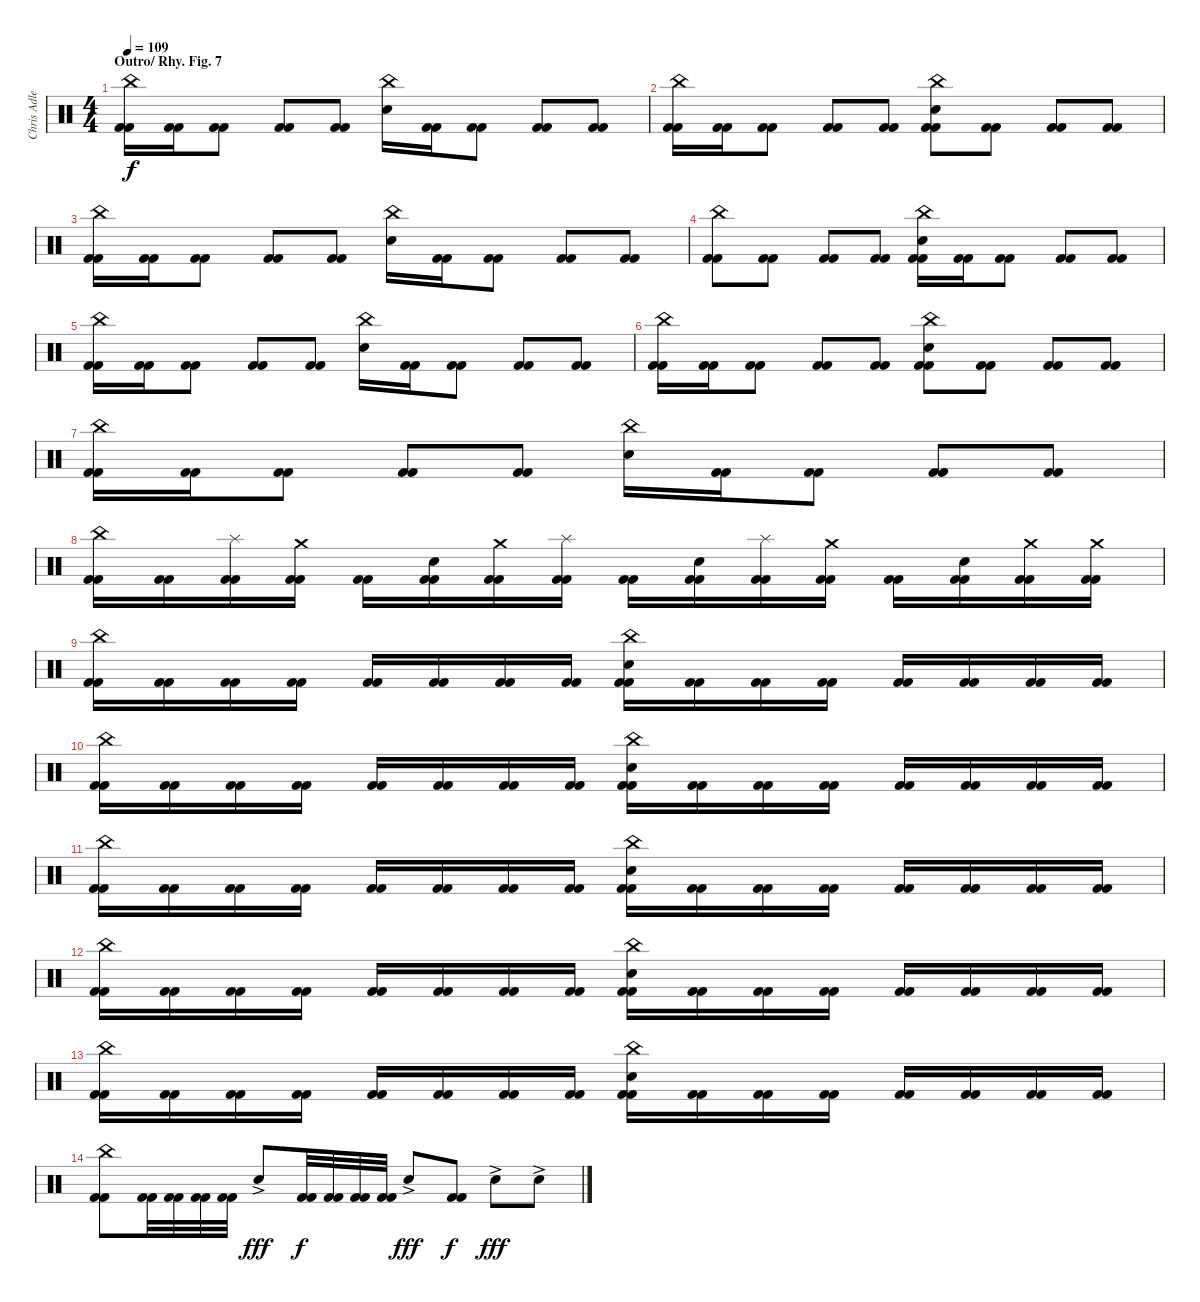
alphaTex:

\track ("Chris Adler" "Chris Adle") {instrument percussion}
\staff {score}
\articulation defaults
\ts (4 4)
\section ("" "Outro/ Rhy. Fig. 7")
\tempo 109
\clef neutral
\ks c
("China (hit)" "Kick (hit) 2" "Kick (hit) 2").16{dy f} ("Kick (hit) 2" "Kick (hit) 2").16 ("Kick (hit) 2" "Kick (hit) 2").8 ("Kick (hit) 2" "Kick (hit) 2").8 ("Kick (hit) 2" "Kick (hit) 2").8 ("China (hit)" "Electric Snare (hit)").16 ("Kick (hit) 2" "Kick (hit) 2").16 ("Kick (hit) 2" "Kick (hit) 2").8 ("Kick (hit) 2" "Kick (hit) 2").8 ("Kick (hit) 2" "Kick (hit) 2").8 |
("China (hit)" "Kick (hit) 2" "Kick (hit) 2").16 ("Kick (hit) 2" "Kick (hit) 2").16 ("Kick (hit) 2" "Kick (hit) 2").8 ("Kick (hit) 2" "Kick (hit) 2").8 ("Kick (hit) 2" "Kick (hit) 2").8 ("China (hit)" "Electric Snare (hit)" "Kick (hit) 2" "Kick (hit) 2").8 ("Kick (hit) 2" "Kick (hit) 2").8 ("Kick (hit) 2" "Kick (hit) 2").8 ("Kick (hit) 2" "Kick (hit) 2").8 |
("China (hit)" "Kick (hit) 2" "Kick (hit) 2").16 ("Kick (hit) 2" "Kick (hit) 2").16 ("Kick (hit) 2" "Kick (hit) 2").8 ("Kick (hit) 2" "Kick (hit) 2").8 ("Kick (hit) 2" "Kick (hit) 2").8 ("China (hit)" "Electric Snare (hit)").16 ("Kick (hit) 2" "Kick (hit) 2").16 ("Kick (hit) 2" "Kick (hit) 2").8 ("Kick (hit) 2" "Kick (hit) 2").8 ("Kick (hit) 2" "Kick (hit) 2").8 |
("China (hit)" "Kick (hit) 2" "Kick (hit) 2").8 ("Kick (hit) 2" "Kick (hit) 2").8 ("Kick (hit) 2" "Kick (hit) 2").8 ("Kick (hit) 2" "Kick (hit) 2").8 ("China (hit)" "Electric Snare (hit)" "Kick (hit) 2" "Kick (hit) 2").16 ("Kick (hit) 2" "Kick (hit) 2").16 ("Kick (hit) 2" "Kick (hit) 2").8 ("Kick (hit) 2" "Kick (hit) 2").8 ("Kick (hit) 2" "Kick (hit) 2").8 |
("China (hit)" "Kick (hit) 2" "Kick (hit) 2").16 ("Kick (hit) 2" "Kick (hit) 2").16 ("Kick (hit) 2" "Kick (hit) 2").8 ("Kick (hit) 2" "Kick (hit) 2").8 ("Kick (hit) 2" "Kick (hit) 2").8 ("China (hit)" "Electric Snare (hit)").16 ("Kick (hit) 2" "Kick (hit) 2").16 ("Kick (hit) 2" "Kick (hit) 2").8 ("Kick (hit) 2" "Kick (hit) 2").8 ("Kick (hit) 2" "Kick (hit) 2").8 |
("China (hit)" "Kick (hit) 2" "Kick (hit) 2").16 ("Kick (hit) 2" "Kick (hit) 2").16 ("Kick (hit) 2" "Kick (hit) 2").8 ("Kick (hit) 2" "Kick (hit) 2").8 ("Kick (hit) 2" "Kick (hit) 2").8 ("China (hit)" "Electric Snare (hit)" "Kick (hit) 2" "Kick (hit) 2").8 ("Kick (hit) 2" "Kick (hit) 2").8 ("Kick (hit) 2" "Kick (hit) 2").8 ("Kick (hit) 2" "Kick (hit) 2").8 |
("China (hit)" "Kick (hit) 2" "Kick (hit) 2").16 ("Kick (hit) 2" "Kick (hit) 2").16 ("Kick (hit) 2" "Kick (hit) 2").8 ("Kick (hit) 2" "Kick (hit) 2").8 ("Kick (hit) 2" "Kick (hit) 2").8 ("China (hit)" "Electric Snare (hit)").16 ("Kick (hit) 2" "Kick (hit) 2").16 ("Kick (hit) 2" "Kick (hit) 2").8 ("Kick (hit) 2" "Kick (hit) 2").8 ("Kick (hit) 2" "Kick (hit) 2").8 |
("China (hit)" "Kick (hit) 2" "Kick (hit) 2").16 ("Kick (hit) 2" "Kick (hit) 2").16 ("Splash (hit)" "Kick (hit) 2" "Kick (hit) 2").16 ("Crash medium (hit)" "Kick (hit) 2" "Kick (hit) 2").16 ("Kick (hit) 2" "Kick (hit) 2").16 ("Electric Snare (hit)" "Kick (hit) 2" "Kick (hit) 2").16 ("Crash medium (hit)" "Kick (hit) 2" "Kick (hit) 2").16 ("Splash (hit)" "Kick (hit) 2" "Kick (hit) 2").16 ("Kick (hit) 2" "Kick (hit) 2").16 ("Electric Snare (hit)" "Kick (hit) 2" "Kick (hit) 2").16 ("Splash (hit)" "Kick (hit) 2" "Kick (hit) 2").16 ("Crash medium (hit)" "Kick (hit) 2" "Kick (hit) 2").16 ("Kick (hit) 2" "Kick (hit) 2").16 ("Electric Snare (hit)" "Kick (hit) 2" "Kick (hit) 2").16 ("Crash medium (hit)" "Kick (hit) 2" "Kick (hit) 2").16 ("Crash medium (hit)" "Kick (hit) 2" "Kick (hit) 2").16 |
("China (hit)" "Kick (hit) 2" "Kick (hit) 2").16 ("Kick (hit) 2" "Kick (hit) 2").16 ("Kick (hit) 2" "Kick (hit) 2").16 ("Kick (hit) 2" "Kick (hit) 2").16 ("Kick (hit) 2" "Kick (hit) 2").16 ("Kick (hit) 2" "Kick (hit) 2").16 ("Kick (hit) 2" "Kick (hit) 2").16 ("Kick (hit) 2" "Kick (hit) 2").16 ("China (hit)" "Electric Snare (hit)" "Kick (hit) 2" "Kick (hit) 2").16 ("Kick (hit) 2" "Kick (hit) 2").16 ("Kick (hit) 2" "Kick (hit) 2").16 ("Kick (hit) 2" "Kick (hit) 2").16 ("Kick (hit) 2" "Kick (hit) 2").16 ("Kick (hit) 2" "Kick (hit) 2").16 ("Kick (hit) 2" "Kick (hit) 2").16 ("Kick (hit) 2" "Kick (hit) 2").16 |
("China (hit)" "Kick (hit) 2" "Kick (hit) 2").16 ("Kick (hit) 2" "Kick (hit) 2").16 ("Kick (hit) 2" "Kick (hit) 2").16 ("Kick (hit) 2" "Kick (hit) 2").16 ("Kick (hit) 2" "Kick (hit) 2").16 ("Kick (hit) 2" "Kick (hit) 2").16 ("Kick (hit) 2" "Kick (hit) 2").16 ("Kick (hit) 2" "Kick (hit) 2").16 ("China (hit)" "Electric Snare (hit)" "Kick (hit) 2" "Kick (hit) 2").16 ("Kick (hit) 2" "Kick (hit) 2").16 ("Kick (hit) 2" "Kick (hit) 2").16 ("Kick (hit) 2" "Kick (hit) 2").16 ("Kick (hit) 2" "Kick (hit) 2").16 ("Kick (hit) 2" "Kick (hit) 2").16 ("Kick (hit) 2" "Kick (hit) 2").16 ("Kick (hit) 2" "Kick (hit) 2").16 |
("China (hit)" "Kick (hit) 2" "Kick (hit) 2").16 ("Kick (hit) 2" "Kick (hit) 2").16 ("Kick (hit) 2" "Kick (hit) 2").16 ("Kick (hit) 2" "Kick (hit) 2").16 ("Kick (hit) 2" "Kick (hit) 2").16 ("Kick (hit) 2" "Kick (hit) 2").16 ("Kick (hit) 2" "Kick (hit) 2").16 ("Kick (hit) 2" "Kick (hit) 2").16 ("China (hit)" "Electric Snare (hit)" "Kick (hit) 2" "Kick (hit) 2").16 ("Kick (hit) 2" "Kick (hit) 2").16 ("Kick (hit) 2" "Kick (hit) 2").16 ("Kick (hit) 2" "Kick (hit) 2").16 ("Kick (hit) 2" "Kick (hit) 2").16 ("Kick (hit) 2" "Kick (hit) 2").16 ("Kick (hit) 2" "Kick (hit) 2").16 ("Kick (hit) 2" "Kick (hit) 2").16 |
("China (hit)" "Kick (hit) 2" "Kick (hit) 2").16 ("Kick (hit) 2" "Kick (hit) 2").16 ("Kick (hit) 2" "Kick (hit) 2").16 ("Kick (hit) 2" "Kick (hit) 2").16 ("Kick (hit) 2" "Kick (hit) 2").16 ("Kick (hit) 2" "Kick (hit) 2").16 ("Kick (hit) 2" "Kick (hit) 2").16 ("Kick (hit) 2" "Kick (hit) 2").16 ("China (hit)" "Electric Snare (hit)" "Kick (hit) 2" "Kick (hit) 2").16 ("Kick (hit) 2" "Kick (hit) 2").16 ("Kick (hit) 2" "Kick (hit) 2").16 ("Kick (hit) 2" "Kick (hit) 2").16 ("Kick (hit) 2" "Kick (hit) 2").16 ("Kick (hit) 2" "Kick (hit) 2").16 ("Kick (hit) 2" "Kick (hit) 2").16 ("Kick (hit) 2" "Kick (hit) 2").16 |
("China (hit)" "Kick (hit) 2" "Kick (hit) 2").16 ("Kick (hit) 2" "Kick (hit) 2").16 ("Kick (hit) 2" "Kick (hit) 2").16 ("Kick (hit) 2" "Kick (hit) 2").16 ("Kick (hit) 2" "Kick (hit) 2").16 ("Kick (hit) 2" "Kick (hit) 2").16 ("Kick (hit) 2" "Kick (hit) 2").16 ("Kick (hit) 2" "Kick (hit) 2").16 ("China (hit)" "Electric Snare (hit)" "Kick (hit) 2" "Kick (hit) 2").16 ("Kick (hit) 2" "Kick (hit) 2").16 ("Kick (hit) 2" "Kick (hit) 2").16 ("Kick (hit) 2" "Kick (hit) 2").16 ("Kick (hit) 2" "Kick (hit) 2").16 ("Kick (hit) 2" "Kick (hit) 2").16 ("Kick (hit) 2" "Kick (hit) 2").16 ("Kick (hit) 2" "Kick (hit) 2").16 |
("China (hit)" "Kick (hit) 2" "Kick (hit) 2").8 ("Kick (hit) 2" "Kick (hit) 2").32 ("Kick (hit) 2" "Kick (hit) 2").32 ("Kick (hit) 2" "Kick (hit) 2").32 ("Kick (hit) 2" "Kick (hit) 2").32 "Electric Snare (hit)"{ac}.8{dy fff} ("Kick (hit) 2" "Kick (hit) 2").32{dy f} ("Kick (hit) 2" "Kick (hit) 2").32 ("Kick (hit) 2" "Kick (hit) 2").32 ("Kick (hit) 2" "Kick (hit) 2").32 "Electric Snare (hit)"{ac}.8{dy fff} ("Kick (hit) 2" "Kick (hit) 2").8{dy f} "Electric Snare (hit)"{ac}.8{dy fff} "Electric Snare (hit)"{ac}.8
